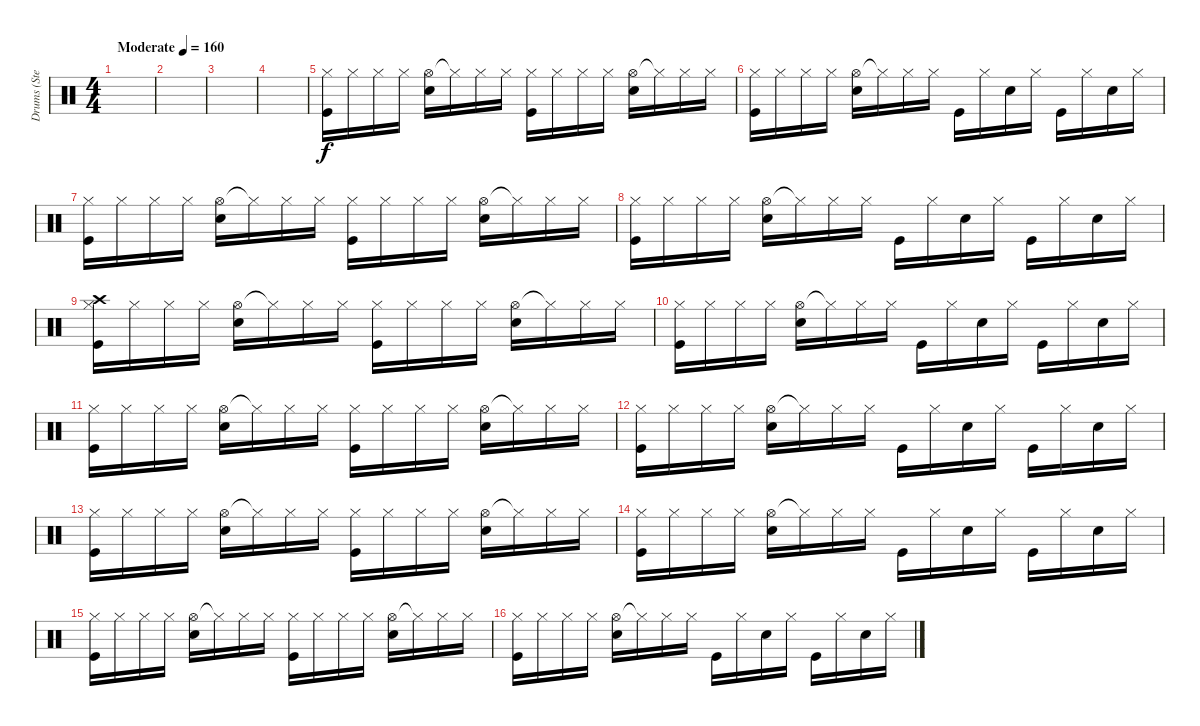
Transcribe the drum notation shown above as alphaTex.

\track ("Drums (Stephen Morris)" "Drums (Ste") {instrument percussion}
\staff {score}
\articulation defaults
\ts (4 4)
\tempo (160 "Moderate")
\clef neutral
\ks c
|
|
|
|
("Hi-Hat (closed)" "Kick (hit)").16 "Hi-Hat (closed)".16 "Hi-Hat (closed)".16 "Hi-Hat (closed)".16 ("Hi-Hat (open)" "Electric Snare (hit)").16 "Hi-Hat (closed)"{t}.16 "Hi-Hat (closed)".16 "Hi-Hat (closed)".16 ("Hi-Hat (closed)" "Kick (hit)").16 "Hi-Hat (closed)".16 "Hi-Hat (closed)".16 "Hi-Hat (closed)".16 ("Hi-Hat (open)" "Electric Snare (hit)").16 "Hi-Hat (closed)"{t}.16 "Hi-Hat (closed)".16 "Hi-Hat (closed)".16 |
("Hi-Hat (closed)" "Kick (hit)").16 "Hi-Hat (closed)".16 "Hi-Hat (closed)".16 "Hi-Hat (closed)".16 ("Hi-Hat (open)" "Electric Snare (hit)").16 "Hi-Hat (closed)"{t}.16 "Hi-Hat (closed)".16 "Hi-Hat (closed)".16 "Kick (hit)".16 "Hi-Hat (closed)".16 "Electric Snare (hit)".16 "Hi-Hat (closed)".16 "Kick (hit)".16 "Hi-Hat (closed)".16 "Electric Snare (hit)".16 "Hi-Hat (closed)".16 |
("Hi-Hat (closed)" "Kick (hit)").16 "Hi-Hat (closed)".16 "Hi-Hat (closed)".16 "Hi-Hat (closed)".16 ("Hi-Hat (open)" "Electric Snare (hit)").16 "Hi-Hat (closed)"{t}.16 "Hi-Hat (closed)".16 "Hi-Hat (closed)".16 ("Hi-Hat (closed)" "Kick (hit)").16 "Hi-Hat (closed)".16 "Hi-Hat (closed)".16 "Hi-Hat (closed)".16 ("Hi-Hat (open)" "Electric Snare (hit)").16 "Hi-Hat (closed)"{t}.16 "Hi-Hat (closed)".16 "Hi-Hat (closed)".16 |
("Hi-Hat (closed)" "Kick (hit)").16 "Hi-Hat (closed)".16 "Hi-Hat (closed)".16 "Hi-Hat (closed)".16 ("Hi-Hat (open)" "Electric Snare (hit)").16 "Hi-Hat (closed)"{t}.16 "Hi-Hat (closed)".16 "Hi-Hat (closed)".16 "Kick (hit)".16 "Hi-Hat (closed)".16 "Electric Snare (hit)".16 "Hi-Hat (closed)".16 "Kick (hit)".16 "Hi-Hat (closed)".16 "Electric Snare (hit)".16 "Hi-Hat (closed)".16 |
("Hi-Hat (closed)" "Kick (hit)" "Crash high (hit)").16 "Hi-Hat (closed)".16 "Hi-Hat (closed)".16 "Hi-Hat (closed)".16 ("Hi-Hat (open)" "Electric Snare (hit)").16 "Hi-Hat (closed)"{t}.16 "Hi-Hat (closed)".16 "Hi-Hat (closed)".16 ("Hi-Hat (closed)" "Kick (hit)").16 "Hi-Hat (closed)".16 "Hi-Hat (closed)".16 "Hi-Hat (closed)".16 ("Hi-Hat (open)" "Electric Snare (hit)").16 "Hi-Hat (closed)"{t}.16 "Hi-Hat (closed)".16 "Hi-Hat (closed)".16 |
("Hi-Hat (closed)" "Kick (hit)").16 "Hi-Hat (closed)".16 "Hi-Hat (closed)".16 "Hi-Hat (closed)".16 ("Hi-Hat (open)" "Electric Snare (hit)").16 "Hi-Hat (closed)"{t}.16 "Hi-Hat (closed)".16 "Hi-Hat (closed)".16 "Kick (hit)".16 "Hi-Hat (closed)".16 "Electric Snare (hit)".16 "Hi-Hat (closed)".16 "Kick (hit)".16 "Hi-Hat (closed)".16 "Electric Snare (hit)".16 "Hi-Hat (closed)".16 |
("Hi-Hat (closed)" "Kick (hit)").16 "Hi-Hat (closed)".16 "Hi-Hat (closed)".16 "Hi-Hat (closed)".16 ("Hi-Hat (open)" "Electric Snare (hit)").16 "Hi-Hat (closed)"{t}.16 "Hi-Hat (closed)".16 "Hi-Hat (closed)".16 ("Hi-Hat (closed)" "Kick (hit)").16 "Hi-Hat (closed)".16 "Hi-Hat (closed)".16 "Hi-Hat (closed)".16 ("Hi-Hat (open)" "Electric Snare (hit)").16 "Hi-Hat (closed)"{t}.16 "Hi-Hat (closed)".16 "Hi-Hat (closed)".16 |
("Hi-Hat (closed)" "Kick (hit)").16 "Hi-Hat (closed)".16 "Hi-Hat (closed)".16 "Hi-Hat (closed)".16 ("Hi-Hat (open)" "Electric Snare (hit)").16 "Hi-Hat (closed)"{t}.16 "Hi-Hat (closed)".16 "Hi-Hat (closed)".16 "Kick (hit)".16 "Hi-Hat (closed)".16 "Electric Snare (hit)".16 "Hi-Hat (closed)".16 "Kick (hit)".16 "Hi-Hat (closed)".16 "Electric Snare (hit)".16 "Hi-Hat (closed)".16 |
("Hi-Hat (closed)" "Kick (hit)").16 "Hi-Hat (closed)".16 "Hi-Hat (closed)".16 "Hi-Hat (closed)".16 ("Hi-Hat (open)" "Electric Snare (hit)").16 "Hi-Hat (closed)"{t}.16 "Hi-Hat (closed)".16 "Hi-Hat (closed)".16 ("Hi-Hat (closed)" "Kick (hit)").16 "Hi-Hat (closed)".16 "Hi-Hat (closed)".16 "Hi-Hat (closed)".16 ("Hi-Hat (open)" "Electric Snare (hit)").16 "Hi-Hat (closed)"{t}.16 "Hi-Hat (closed)".16 "Hi-Hat (closed)".16 |
("Hi-Hat (closed)" "Kick (hit)").16 "Hi-Hat (closed)".16 "Hi-Hat (closed)".16 "Hi-Hat (closed)".16 ("Hi-Hat (open)" "Electric Snare (hit)").16 "Hi-Hat (closed)"{t}.16 "Hi-Hat (closed)".16 "Hi-Hat (closed)".16 "Kick (hit)".16 "Hi-Hat (closed)".16 "Electric Snare (hit)".16 "Hi-Hat (closed)".16 "Kick (hit)".16 "Hi-Hat (closed)".16 "Electric Snare (hit)".16 "Hi-Hat (closed)".16 |
("Hi-Hat (closed)" "Kick (hit)").16 "Hi-Hat (closed)".16 "Hi-Hat (closed)".16 "Hi-Hat (closed)".16 ("Hi-Hat (open)" "Electric Snare (hit)").16 "Hi-Hat (closed)"{t}.16 "Hi-Hat (closed)".16 "Hi-Hat (closed)".16 ("Hi-Hat (closed)" "Kick (hit)").16 "Hi-Hat (closed)".16 "Hi-Hat (closed)".16 "Hi-Hat (closed)".16 ("Hi-Hat (open)" "Electric Snare (hit)").16 "Hi-Hat (closed)"{t}.16 "Hi-Hat (closed)".16 "Hi-Hat (closed)".16 |
("Hi-Hat (closed)" "Kick (hit)").16 "Hi-Hat (closed)".16 "Hi-Hat (closed)".16 "Hi-Hat (closed)".16 ("Hi-Hat (open)" "Electric Snare (hit)").16 "Hi-Hat (closed)"{t}.16 "Hi-Hat (closed)".16 "Hi-Hat (closed)".16 "Kick (hit)".16 "Hi-Hat (closed)".16 "Electric Snare (hit)".16 "Hi-Hat (closed)".16 "Kick (hit)".16 "Hi-Hat (closed)".16 "Electric Snare (hit)".16 "Hi-Hat (closed)".16
